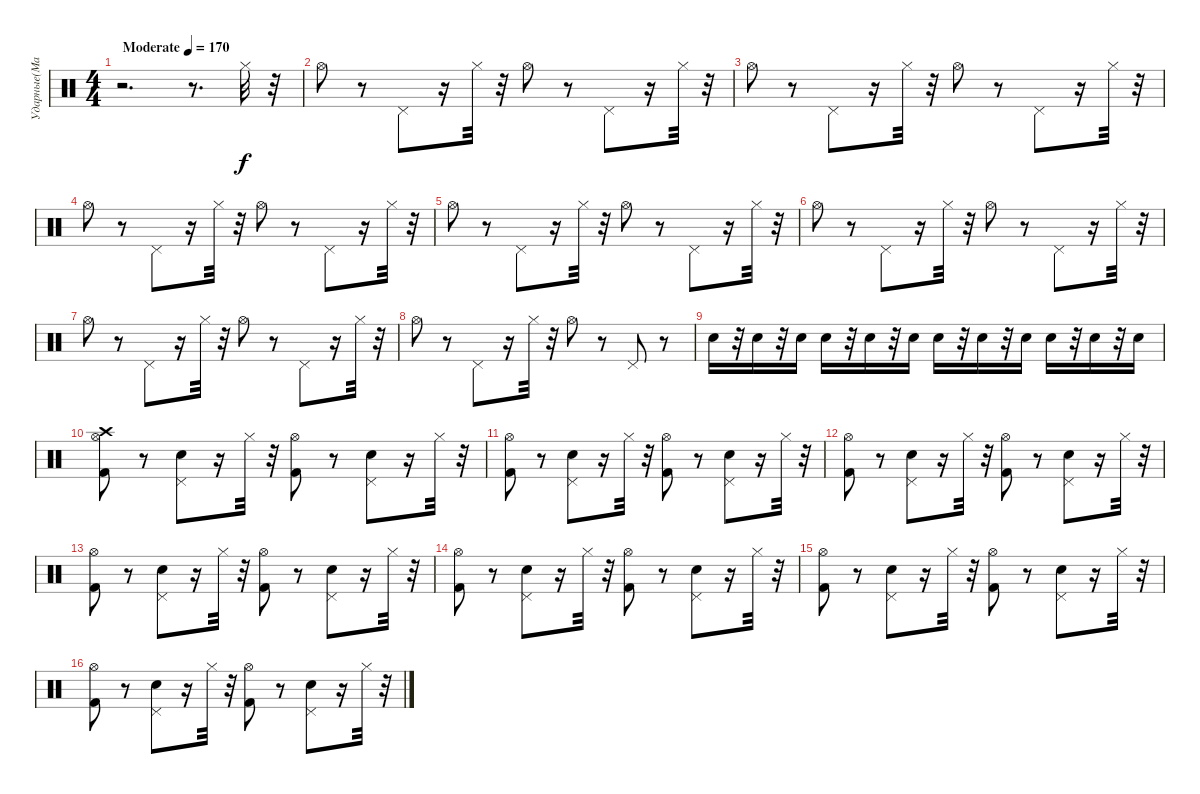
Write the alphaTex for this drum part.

\track ("Ударные(Май)" "Ударные(Ма") {instrument percussion}
\staff {score}
\articulation defaults
\ts (4 4)
\tempo (170 "Moderate")
\clef neutral
\ks c
r.2{d dy f} r.8{d} "Hi-Hat (closed)".32 r.32 |
"Hi-Hat (open)".8 r.8 "Pedal Hi-Hat (hit)".8 r.16 "Hi-Hat (closed)".32 r.32 "Hi-Hat (open)".8 r.8 "Pedal Hi-Hat (hit)".8 r.16 "Hi-Hat (closed)".32 r.32 |
"Hi-Hat (open)".8 r.8 "Pedal Hi-Hat (hit)".8 r.16 "Hi-Hat (closed)".32 r.32 "Hi-Hat (open)".8 r.8 "Pedal Hi-Hat (hit)".8 r.16 "Hi-Hat (closed)".32 r.32 |
"Hi-Hat (open)".8 r.8 "Pedal Hi-Hat (hit)".8 r.16 "Hi-Hat (closed)".32 r.32 "Hi-Hat (open)".8 r.8 "Pedal Hi-Hat (hit)".8 r.16 "Hi-Hat (closed)".32 r.32 |
"Hi-Hat (open)".8 r.8 "Pedal Hi-Hat (hit)".8 r.16 "Hi-Hat (closed)".32 r.32 "Hi-Hat (open)".8 r.8 "Pedal Hi-Hat (hit)".8 r.16 "Hi-Hat (closed)".32 r.32 |
"Hi-Hat (open)".8 r.8 "Pedal Hi-Hat (hit)".8 r.16 "Hi-Hat (closed)".32 r.32 "Hi-Hat (open)".8 r.8 "Pedal Hi-Hat (hit)".8 r.16 "Hi-Hat (closed)".32 r.32 |
"Hi-Hat (open)".8 r.8 "Pedal Hi-Hat (hit)".8 r.16 "Hi-Hat (closed)".32 r.32 "Hi-Hat (open)".8 r.8 "Pedal Hi-Hat (hit)".8 r.16 "Hi-Hat (closed)".32 r.32 |
"Hi-Hat (open)".8 r.8 "Pedal Hi-Hat (hit)".8 r.16 "Hi-Hat (closed)".32 r.32 "Hi-Hat (open)".8 r.8 "Pedal Hi-Hat (hit)".8 r.8 |
"Snare (hit) 2".16 r.32 "Snare (hit) 2".16 r.32 "Snare (hit) 2".16 "Snare (hit) 2".16 r.32 "Snare (hit) 2".16 r.32 "Snare (hit) 2".16 "Snare (hit) 2".16 r.32 "Snare (hit) 2".16 r.32 "Snare (hit) 2".16 "Snare (hit) 2".16 r.32 "Snare (hit) 2".16 r.32 "Snare (hit) 2".16 |
("Crash high (hit)" "Kick (hit) 2" "Hi-Hat (open)").8 r.8 ("Electric Snare (hit)" "Pedal Hi-Hat (hit)").8 r.16 "Hi-Hat (closed)".32 r.32 ("Kick (hit) 2" "Hi-Hat (open)").8 r.8 ("Electric Snare (hit)" "Pedal Hi-Hat (hit)").8 r.16 "Hi-Hat (closed)".32 r.32 |
("Hi-Hat (open)" "Kick (hit) 2").8 r.8 ("Electric Snare (hit)" "Pedal Hi-Hat (hit)").8 r.16 "Hi-Hat (closed)".32 r.32 ("Kick (hit) 2" "Hi-Hat (open)").8 r.8 ("Electric Snare (hit)" "Pedal Hi-Hat (hit)").8 r.16 "Hi-Hat (closed)".32 r.32 |
("Hi-Hat (open)" "Kick (hit) 2").8 r.8 ("Electric Snare (hit)" "Pedal Hi-Hat (hit)").8 r.16 "Hi-Hat (closed)".32 r.32 ("Kick (hit) 2" "Hi-Hat (open)").8 r.8 ("Electric Snare (hit)" "Pedal Hi-Hat (hit)").8 r.16 "Hi-Hat (closed)".32 r.32 |
("Hi-Hat (open)" "Kick (hit) 2").8 r.8 ("Electric Snare (hit)" "Pedal Hi-Hat (hit)").8 r.16 "Hi-Hat (closed)".32 r.32 ("Kick (hit) 2" "Hi-Hat (open)").8 r.8 ("Electric Snare (hit)" "Pedal Hi-Hat (hit)").8 r.16 "Hi-Hat (closed)".32 r.32 |
("Hi-Hat (open)" "Kick (hit) 2").8 r.8 ("Electric Snare (hit)" "Pedal Hi-Hat (hit)").8 r.16 "Hi-Hat (closed)".32 r.32 ("Kick (hit) 2" "Hi-Hat (open)").8 r.8 ("Electric Snare (hit)" "Pedal Hi-Hat (hit)").8 r.16 "Hi-Hat (closed)".32 r.32 |
("Hi-Hat (open)" "Kick (hit) 2").8 r.8 ("Electric Snare (hit)" "Pedal Hi-Hat (hit)").8 r.16 "Hi-Hat (closed)".32 r.32 ("Kick (hit) 2" "Hi-Hat (open)").8 r.8 ("Electric Snare (hit)" "Pedal Hi-Hat (hit)").8 r.16 "Hi-Hat (closed)".32 r.32 |
("Hi-Hat (open)" "Kick (hit) 2").8 r.8 ("Electric Snare (hit)" "Pedal Hi-Hat (hit)").8 r.16 "Hi-Hat (closed)".32 r.32 ("Kick (hit) 2" "Hi-Hat (open)").8 r.8 ("Electric Snare (hit)" "Pedal Hi-Hat (hit)").8 r.16 "Hi-Hat (closed)".32 r.32
